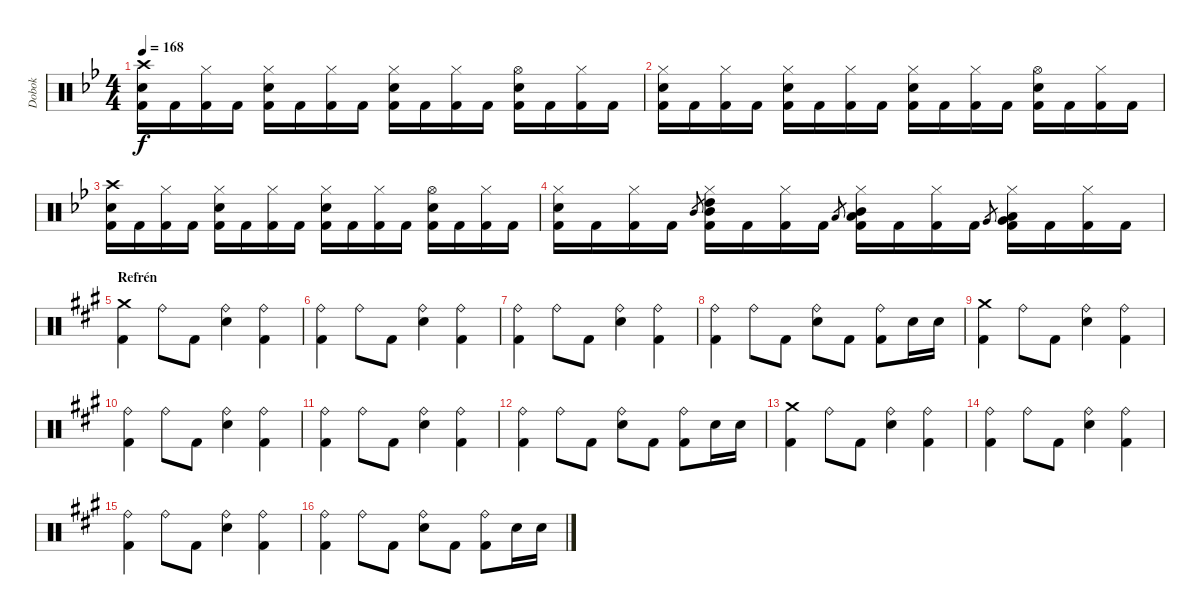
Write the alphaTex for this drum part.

\track ("Dobok" "Dobok") {instrument percussion}
\staff {score}
\articulation defaults
\ts (4 4)
\tempo 168
\clef neutral
\ks gminor
("Crash high (hit)" "Snare (hit) 2" "Kick (hit) 2").16{dy f} "Kick (hit) 2".16 ("Hi-Hat (closed)" "Kick (hit) 2").16 "Kick (hit) 2".16 ("Hi-Hat (closed)" "Snare (hit) 2" "Kick (hit) 2").16 "Kick (hit) 2".16 ("Hi-Hat (closed)" "Kick (hit) 2").16 "Kick (hit) 2".16 ("Hi-Hat (closed)" "Snare (hit) 2" "Kick (hit) 2").16 "Kick (hit) 2".16 ("Hi-Hat (closed)" "Kick (hit) 2").16 "Kick (hit) 2".16 ("Hi-Hat (open)" "Snare (hit) 2" "Kick (hit) 2").16 "Kick (hit) 2".16 ("Hi-Hat (closed)" "Kick (hit) 2").16 "Kick (hit) 2".16 |
("Hi-Hat (closed)" "Snare (hit) 2" "Kick (hit) 2").16 "Kick (hit) 2".16 ("Hi-Hat (closed)" "Kick (hit) 2").16 "Kick (hit) 2".16 ("Hi-Hat (closed)" "Snare (hit) 2" "Kick (hit) 2").16 "Kick (hit) 2".16 ("Hi-Hat (closed)" "Kick (hit) 2").16 "Kick (hit) 2".16 ("Hi-Hat (closed)" "Snare (hit) 2" "Kick (hit) 2").16 "Kick (hit) 2".16 ("Hi-Hat (closed)" "Kick (hit) 2").16 "Kick (hit) 2".16 ("Hi-Hat (open)" "Snare (hit) 2" "Kick (hit) 2").16 "Kick (hit) 2".16 ("Hi-Hat (closed)" "Kick (hit) 2").16 "Kick (hit) 2".16 |
("Crash high (hit)" "Snare (hit) 2" "Kick (hit) 2").16 "Kick (hit) 2".16 ("Hi-Hat (closed)" "Kick (hit) 2").16 "Kick (hit) 2".16 ("Hi-Hat (closed)" "Snare (hit) 2" "Kick (hit) 2").16 "Kick (hit) 2".16 ("Hi-Hat (closed)" "Kick (hit) 2").16 "Kick (hit) 2".16 ("Hi-Hat (closed)" "Snare (hit) 2" "Kick (hit) 2").16 "Kick (hit) 2".16 ("Hi-Hat (closed)" "Kick (hit) 2").16 "Kick (hit) 2".16 ("Hi-Hat (open)" "Snare (hit) 2" "Kick (hit) 2").16 "Kick (hit) 2".16 ("Hi-Hat (closed)" "Kick (hit) 2").16 "Kick (hit) 2".16 |
("Hi-Hat (closed)" "Snare (hit) 2" "Kick (hit) 2").16 "Kick (hit) 2".16 ("Hi-Hat (closed)" "Kick (hit) 2").16 "Kick (hit) 2".16 "Mid Tom (hit)".8{gr} ("Hi-Hat (closed)" "High Tom (hit)" "Mid Tom (hit)" "Kick (hit) 2").16 "Kick (hit) 2".16 ("Hi-Hat (closed)" "Kick (hit) 2").16 "Kick (hit) 2".16 "Low Tom (hit)".8{gr} ("Hi-Hat (closed)" "Mid Tom (hit)" "Low Tom (hit)" "Kick (hit) 2").16 "Kick (hit) 2".16 ("Hi-Hat (closed)" "Kick (hit) 2").16 "Kick (hit) 2".16 "Very Low Tom (hit)".8{gr} ("Hi-Hat (closed)" "Low Tom (hit)" "Very Low Tom (hit)" "Kick (hit) 2").16 "Kick (hit) 2".16 ("Hi-Hat (closed)" "Kick (hit) 2").16 "Kick (hit) 2".16 |
\section ("" "Refrén")
\ks f#minor
("Crash medium (hit)" "Kick (hit) 2").4 "Ride (bell)".8 "Kick (hit) 2".8 ("Ride (bell)" "Snare (hit) 2").4 ("Ride (bell)" "Kick (hit) 2").4 |
("Ride (bell)" "Kick (hit) 2").4 "Ride (bell)".8 "Kick (hit) 2".8 ("Ride (bell)" "Snare (hit) 2").4 ("Ride (bell)" "Kick (hit) 2").4 |
("Ride (bell)" "Kick (hit) 2").4 "Ride (bell)".8 "Kick (hit) 2".8 ("Ride (bell)" "Snare (hit) 2").4 ("Ride (bell)" "Kick (hit) 2").4 |
("Ride (bell)" "Kick (hit) 2").4 "Ride (bell)".8 "Kick (hit) 2".8 ("Ride (bell)" "Snare (hit) 2").8 "Kick (hit) 2".8 ("Ride (bell)" "Kick (hit) 2").8 "Snare (hit) 2".16 "Snare (hit) 2".16 |
("Crash medium (hit)" "Kick (hit) 2").4 "Ride (bell)".8 "Kick (hit) 2".8 ("Ride (bell)" "Snare (hit) 2").4 ("Ride (bell)" "Kick (hit) 2").4 |
("Ride (bell)" "Kick (hit) 2").4 "Ride (bell)".8 "Kick (hit) 2".8 ("Ride (bell)" "Snare (hit) 2").4 ("Ride (bell)" "Kick (hit) 2").4 |
("Ride (bell)" "Kick (hit) 2").4 "Ride (bell)".8 "Kick (hit) 2".8 ("Ride (bell)" "Snare (hit) 2").4 ("Ride (bell)" "Kick (hit) 2").4 |
("Ride (bell)" "Kick (hit) 2").4 "Ride (bell)".8 "Kick (hit) 2".8 ("Ride (bell)" "Snare (hit) 2").8 "Kick (hit) 2".8 ("Ride (bell)" "Kick (hit) 2").8 "Snare (hit) 2".16 "Snare (hit) 2".16 |
("Crash medium (hit)" "Kick (hit) 2").4 "Ride (bell)".8 "Kick (hit) 2".8 ("Ride (bell)" "Snare (hit) 2").4 ("Ride (bell)" "Kick (hit) 2").4 |
("Ride (bell)" "Kick (hit) 2").4 "Ride (bell)".8 "Kick (hit) 2".8 ("Ride (bell)" "Snare (hit) 2").4 ("Ride (bell)" "Kick (hit) 2").4 |
("Ride (bell)" "Kick (hit) 2").4 "Ride (bell)".8 "Kick (hit) 2".8 ("Ride (bell)" "Snare (hit) 2").4 ("Ride (bell)" "Kick (hit) 2").4 |
("Ride (bell)" "Kick (hit) 2").4 "Ride (bell)".8 "Kick (hit) 2".8 ("Ride (bell)" "Snare (hit) 2").8 "Kick (hit) 2".8 ("Ride (bell)" "Kick (hit) 2").8 "Snare (hit) 2".16 "Snare (hit) 2".16
